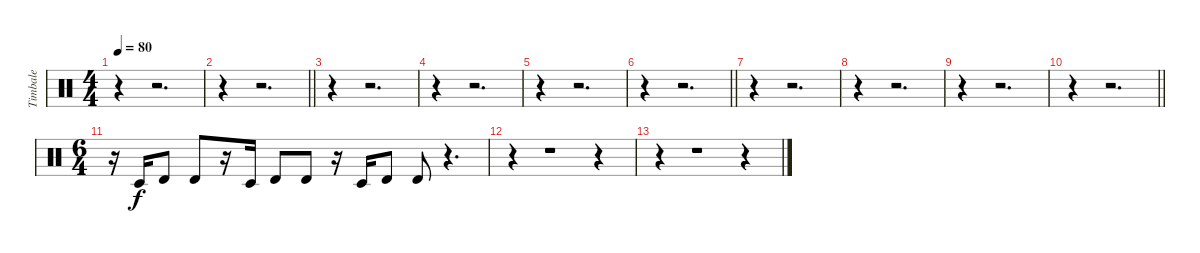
\track ("Timbale" "Timbale") {instrument percussion}
\staff {score}
\articulation defaults
\ts (4 4)
\tempo 80
\clef neutral
\ks c
r.4{dy mp} r.2{d} |
\barLineRight lightlight
r.4 r.2{d} |
r.4 r.2{d} |
r.4 r.2{d} |
r.4 r.2{d} |
\barLineRight lightlight
r.4 r.2{d} |
r.4 r.2{d} |
r.4 r.2{d} |
r.4 r.2{d} |
\barLineRight lightlight
r.4 r.2{d} |
\ts (6 4)
r.16 "Timbale low (hit)".16{dy f} "Timbale high (hit)".8 "Timbale high (hit)".8 r.16 "Timbale low (hit)".16 "Timbale high (hit)".8 "Timbale high (hit)".8 r.16 "Timbale low (hit)".16 "Timbale high (hit)".8 "Timbale high (hit)".8 r.4{d} |
r.4 r.1 r.4 |
r.4 r.1 r.4
